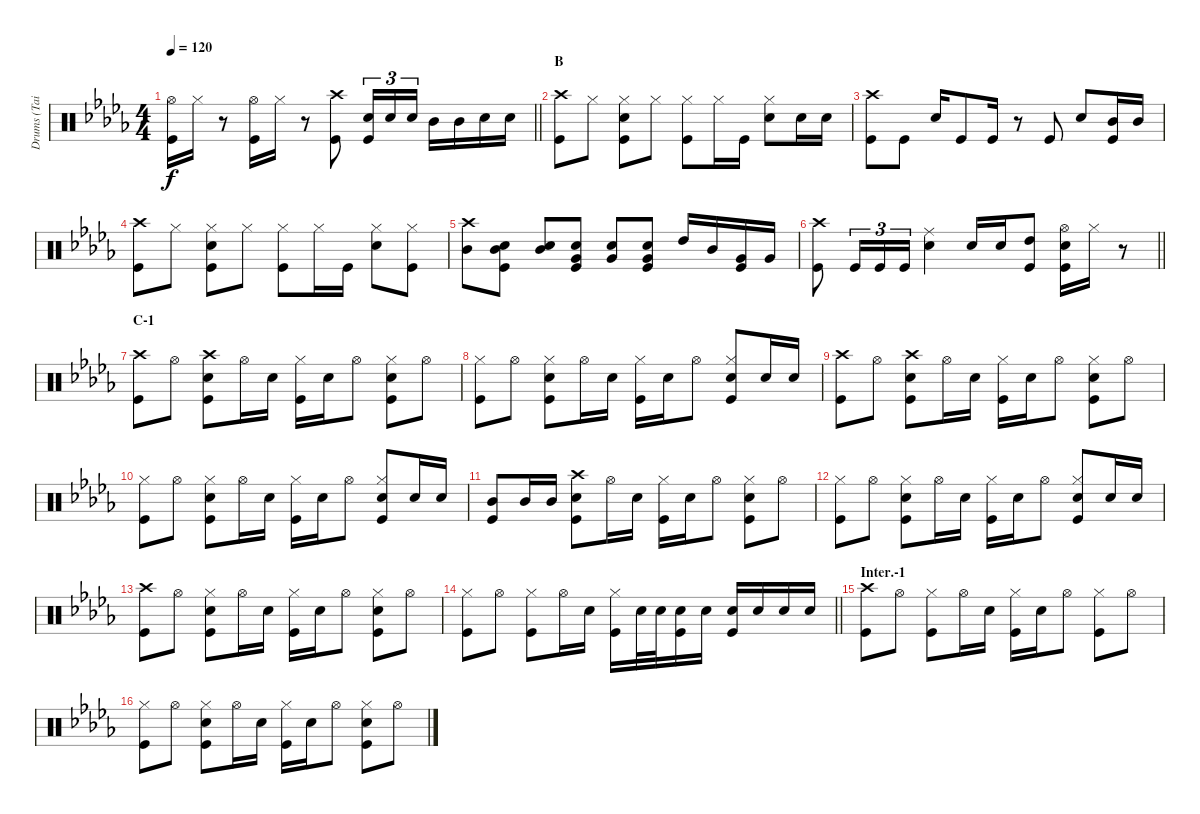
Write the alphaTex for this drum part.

\track ("Drums (Tainaka Ritsu)" "Drums (Tai") {instrument percussion}
\staff {score}
\articulation defaults
\ts (4 4)
\tempo 120
\clef neutral
\barLineRight lightlight
\ks db
("Hi-Hat (open)" "Kick (hit)").16{dy f} "Hi-Hat (closed)".16 r.8 ("Hi-Hat (open)" "Kick (hit)").16 "Hi-Hat (closed)".16 r.8 ("Crash high (hit)" "Kick (hit)").8 ("Snare (hit) 2" "Kick (hit)").16{tu (3 2)} "Snare (hit) 2".16{tu (3 2)} "Snare (hit) 2".16{tu (3 2)} "Mid Tom (hit)".16 "Mid Tom (hit)".16 "Snare (hit) 2".16 "Snare (hit) 2".16 |
\section ("" "B")
("Crash high (hit)" "Kick (hit)").8 "Hi-Hat (closed)".8 ("Hi-Hat (closed)" "Snare (hit) 2" "Kick (hit)").8 "Hi-Hat (closed)".8 ("Hi-Hat (closed)" "Kick (hit)").8 "Hi-Hat (closed)".16 "Kick (hit)".16 ("Hi-Hat (closed)" "Snare (hit) 2").8 "Snare (hit) 2".16 "Snare (hit) 2".16 |
("Crash high (hit)" "Kick (hit)").8 "Kick (hit)".8 "Snare (hit) 2".16 "Kick (hit)".8 "Kick (hit)".16 r.8 "Kick (hit)".8 "Snare (hit) 2".8 ("Mid Tom (hit)" "Kick (hit)").16 "Mid Tom (hit)".16 |
("Crash high (hit)" "Kick (hit)").8 "Hi-Hat (closed)".8 ("Hi-Hat (closed)" "Snare (hit) 2" "Kick (hit)").8 "Hi-Hat (closed)".8 ("Hi-Hat (closed)" "Kick (hit)").8 "Hi-Hat (closed)".16 "Kick (hit)".16 ("Hi-Hat (closed)" "Snare (hit) 2").8 ("Hi-Hat (closed)" "Kick (hit)").8 |
("Crash high (hit)" "Mid Tom (hit)").8 ("Snare (hit) 2" "Mid Tom (hit)" "Kick (hit)").8 ("Snare (hit) 2" "Mid Tom (hit)").8 ("Snare (hit) 2" "Very Low Tom (hit)" "Kick (hit)").8 ("Snare (hit) 2" "Very Low Tom (hit)").8 ("Snare (hit) 2" "Very Low Tom (hit)" "Kick (hit)").8 "High Tom (hit)".16 "Mid Tom (hit)".16 ("Very Low Tom (hit)" "Kick (hit)").16 "Very Low Tom (hit)".16 |
\barLineRight lightlight
("Crash high (hit)" "Kick (hit)").8 "Kick (hit)".16{tu (3 2)} "Kick (hit)".16{tu (3 2)} "Kick (hit)".16{tu (3 2)} ("Ride (middle)" "Snare (hit) 2").4 "Snare (hit) 2".16 "Snare (hit) 2".16 ("High Tom (hit)" "Kick (hit)").8 ("Hi-Hat (open)" "Snare (hit) 2" "Kick (hit)").16 "Hi-Hat (closed)".16 r.8 |
\section ("" "C-1")
("Crash high (hit)" "Kick (hit)").8 "Hi-Hat (open)".8 ("Crash high (hit)" "Snare (hit) 2" "Kick (hit)").8 "Hi-Hat (open)".16 "Snare (hit) 2".16 ("Hi-Hat (closed)" "Kick (hit)").16 "Snare (hit) 2".16 "Hi-Hat (open)".8 ("Hi-Hat (closed)" "Snare (hit) 2" "Kick (hit)").8 "Hi-Hat (open)".8 |
("Hi-Hat (closed)" "Kick (hit)").8 "Hi-Hat (open)".8 ("Hi-Hat (closed)" "Snare (hit) 2" "Kick (hit)").8 "Hi-Hat (open)".16 "Snare (hit) 2".16 ("Hi-Hat (closed)" "Kick (hit)").16 "Snare (hit) 2".16 "Hi-Hat (open)".8 ("Hi-Hat (closed)" "Snare (hit) 2" "Kick (hit)").8 "Snare (hit) 2".16 "Snare (hit) 2".16 |
("Crash high (hit)" "Kick (hit)").8 "Hi-Hat (open)".8 ("Crash high (hit)" "Snare (hit) 2" "Kick (hit)").8 "Hi-Hat (open)".16 "Snare (hit) 2".16 ("Hi-Hat (closed)" "Kick (hit)").16 "Snare (hit) 2".16 "Hi-Hat (open)".8 ("Hi-Hat (closed)" "Snare (hit) 2" "Kick (hit)").8 "Hi-Hat (open)".8 |
("Hi-Hat (closed)" "Kick (hit)").8 "Hi-Hat (open)".8 ("Hi-Hat (closed)" "Snare (hit) 2" "Kick (hit)").8 "Hi-Hat (open)".16 "Snare (hit) 2".16 ("Hi-Hat (closed)" "Kick (hit)").16 "Snare (hit) 2".16 "Hi-Hat (open)".8 ("Hi-Hat (closed)" "Snare (hit) 2" "Kick (hit)").8 "Snare (hit) 2".16 "Snare (hit) 2".16 |
("Mid Tom (hit)" "Kick (hit)").8 "Mid Tom (hit)".16 "Mid Tom (hit)".16 ("Crash high (hit)" "Snare (hit) 2" "Kick (hit)").8 "Hi-Hat (open)".16 "Snare (hit) 2".16 ("Hi-Hat (closed)" "Kick (hit)").16 "Snare (hit) 2".16 "Hi-Hat (open)".8 ("Hi-Hat (closed)" "Snare (hit) 2" "Kick (hit)").8 "Hi-Hat (open)".8 |
("Hi-Hat (closed)" "Kick (hit)").8 "Hi-Hat (open)".8 ("Hi-Hat (closed)" "Snare (hit) 2" "Kick (hit)").8 "Hi-Hat (open)".16 "Snare (hit) 2".16 ("Hi-Hat (closed)" "Kick (hit)").16 "Snare (hit) 2".16 "Hi-Hat (open)".8 ("Hi-Hat (closed)" "Snare (hit) 2" "Kick (hit)").8 "Snare (hit) 2".16 "Snare (hit) 2".16 |
("Crash high (hit)" "Kick (hit)").8 "Hi-Hat (open)".8 ("Hi-Hat (closed)" "Snare (hit) 2" "Kick (hit)").8 "Hi-Hat (open)".16 "Snare (hit) 2".16 ("Hi-Hat (closed)" "Kick (hit)").16 "Snare (hit) 2".16 "Hi-Hat (open)".8 ("Hi-Hat (closed)" "Snare (hit) 2" "Kick (hit)").8 "Hi-Hat (open)".8 |
\barLineRight lightlight
("Hi-Hat (closed)" "Kick (hit)").8 "Hi-Hat (open)".8 ("Hi-Hat (closed)" "Kick (hit)").8 "Hi-Hat (open)".16 "Snare (hit) 2".16 ("Hi-Hat (closed)" "Kick (hit)").16 "Snare (hit) 2".32 "Snare (hit) 2".32 ("Snare (hit) 2" "Kick (hit)").16 "Snare (hit) 2".16 ("Snare (hit) 2" "Kick (hit)").16 "Snare (hit) 2".16 "Snare (hit) 2".16 "Snare (hit) 2".16 |
\section ("" "Inter.-1")
("Crash high (hit)" "Kick (hit)").8 "Hi-Hat (open)".8 ("Hi-Hat (closed)" "Kick (hit)").8 "Hi-Hat (open)".16 "Snare (hit) 2".16 ("Hi-Hat (closed)" "Kick (hit)").16 "Snare (hit) 2".16 "Hi-Hat (open)".8 ("Hi-Hat (closed)" "Kick (hit)").8 "Hi-Hat (open)".8 |
("Hi-Hat (closed)" "Kick (hit)").8 "Hi-Hat (open)".8 ("Hi-Hat (closed)" "Snare (hit) 2" "Kick (hit)").8 "Hi-Hat (open)".16 "Snare (hit) 2".16 ("Hi-Hat (closed)" "Kick (hit)").16 "Snare (hit) 2".16 "Hi-Hat (open)".8 ("Hi-Hat (closed)" "Snare (hit) 2" "Kick (hit)").8 "Hi-Hat (open)".8
